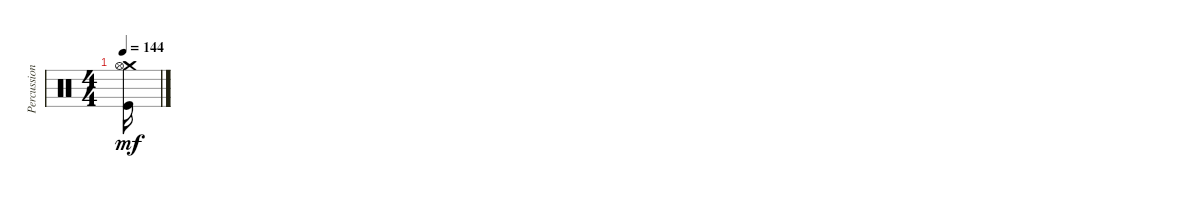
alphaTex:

\track ("Percussion" "Percussion") {instrument percussion}
\staff {score}
\articulation defaults
\ts (4 4)
\tempo 144
\clef neutral
\ks c
("Crash medium (hit)" "Hi-Hat (open)" "Kick (hit)").16{dy mf}
